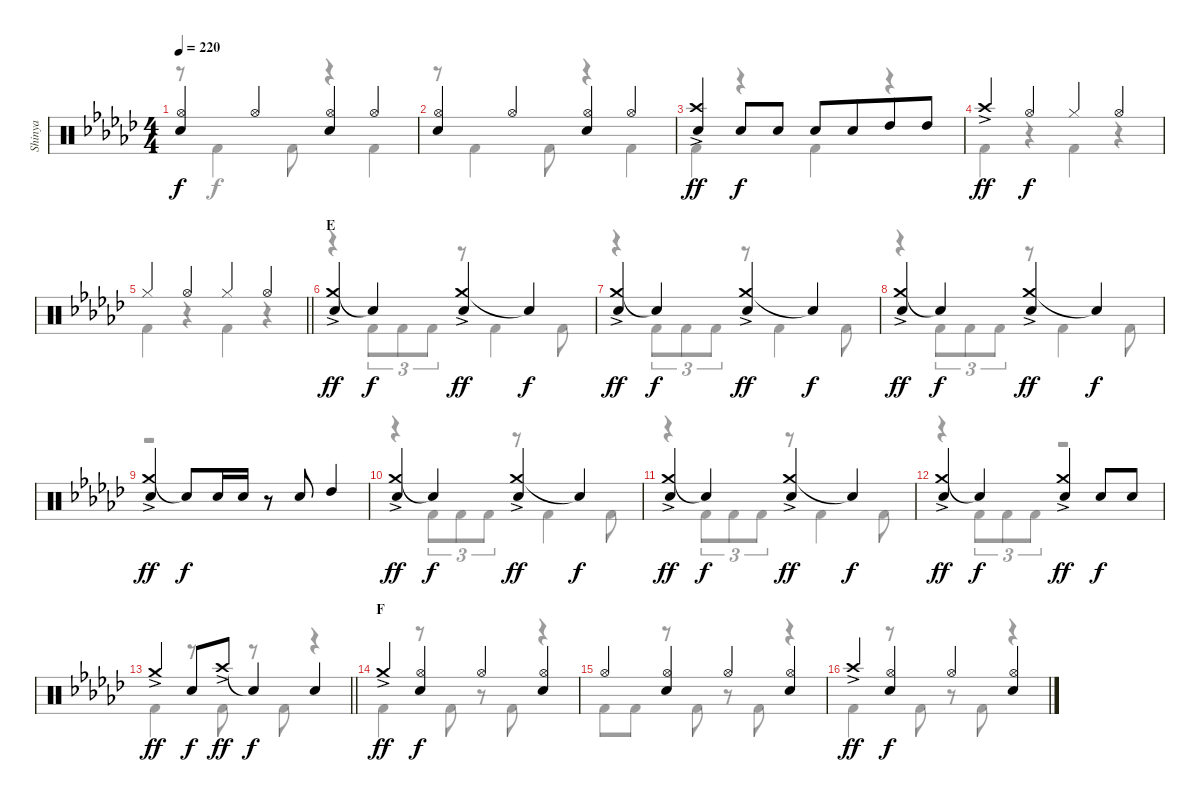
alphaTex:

\track ("Shinya" "Shinya") {instrument percussion}
\staff {score}
\articulation defaults
\voice
\ts (4 4)
\tempo 220
\clef neutral
\ks ebminor
("Hi-Hat (open)" "Snare (hit) 2").4{dy f} "Hi-Hat (open)".4 ("Hi-Hat (open)" "Snare (hit) 2").4 "Hi-Hat (open)".4 |
("Hi-Hat (open)" "Snare (hit) 2").4 "Hi-Hat (open)".4 ("Hi-Hat (open)" "Snare (hit) 2").4 "Hi-Hat (open)".4 |
("Crash high (hit)"{ac} "Snare (hit) 2").4{dy ff} "Snare (hit) 2".8{dy f} "Snare (hit) 2".8 "Snare (hit) 2".8 "Snare (hit) 2".8{beam merge} "High Tom (hit)".8 "High Tom (hit)".8 |
"Crash high (hit)"{ac}.4{dy ff} "Hi-Hat (open)".4{dy f} "Hi-Hat (closed)".4 "Hi-Hat (open)".4 |
\barLineRight lightlight "Hi-Hat (closed)".4 "Hi-Hat (open)".4 "Hi-Hat (closed)".4 "Hi-Hat (open)".4
|
\section ("" "E")
("Crash medium (hit)"{ac} "Snare (hit) 2").4{dy ff} "Snare (hit)"{t}.4{dy f} ("Crash medium (hit)"{ac} "Snare (hit) 2").4{dy ff} "Snare (hit)"{t}.4{dy f} |
("Crash medium (hit)"{ac} "Snare (hit) 2").4{dy ff} "Snare (hit)"{t}.4{dy f} ("Crash medium (hit)"{ac} "Snare (hit) 2").4{dy ff} "Snare (hit)"{t}.4{dy f} |
("Crash medium (hit)"{ac} "Snare (hit) 2").4{dy ff} "Snare (hit)"{t}.4{dy f} ("Crash medium (hit)"{ac} "Snare (hit) 2").4{dy ff} "Snare (hit)"{t}.4{dy f} |
("Crash medium (hit)"{ac} "Snare (hit) 2").4{dy ff} "Snare (hit)"{t}.8{dy f} "Snare (hit) 2".16 "Snare (hit) 2".16 r.8 "Snare (hit) 2".8 "High Tom (hit)".4 |
("Crash medium (hit)"{ac} "Snare (hit) 2").4{dy ff} "Snare (hit)"{t}.4{dy f} ("Crash medium (hit)"{ac} "Snare (hit) 2").4{dy ff} "Snare (hit)"{t}.4{dy f} |
("Crash medium (hit)"{ac} "Snare (hit) 2").4{dy ff} "Snare (hit)"{t}.4{dy f} ("Crash medium (hit)"{ac} "Snare (hit) 2").4{dy ff} "Snare (hit)"{t}.4{dy f} |
("Crash medium (hit)"{ac} "Snare (hit) 2").4{dy ff} "Snare (hit)"{t}.4{dy f} ("Crash medium (hit)"{ac} "Snare (hit) 2").4{dy ff} "Snare (hit) 2".8{dy f} "Snare (hit) 2".8 |
\barLineRight lightlight "Crash medium (hit)"{ac}.4{dy ff} "Snare (hit) 2".8{dy f} "Crash high (hit)"{ac}.8{dy ff} "Snare (hit)"{t}.4{dy f} "Snare (hit) 2".4
|
\section ("" "F")
"Crash medium (hit)"{ac}.4{dy ff} ("Hi-Hat (open)" "Snare (hit) 2").4{dy f} "Hi-Hat (open)".4 ("Hi-Hat (open)" "Snare (hit) 2").4 |
"Hi-Hat (open)".4 ("Hi-Hat (open)" "Snare (hit) 2").4 "Hi-Hat (open)".4 ("Hi-Hat (open)" "Snare (hit) 2").4 |
"Crash high (hit)"{ac}.4{dy ff} ("Hi-Hat (open)" "Snare (hit) 2").4{dy f} "Hi-Hat (open)".4 ("Hi-Hat (open)" "Snare (hit) 2").4
\voice
\clef neutral
\ottava regular
\simile none
\ks ebminor
r.8{dy f} "Kick (hit) 2".4 "Kick (hit) 2".8 r.4 "Kick (hit) 2".4 |
r.8 "Kick (hit) 2".4 "Kick (hit) 2".8 r.4 "Kick (hit) 2".4 |
"Kick (hit) 2".4 r.4 "Kick (hit) 2".4 r.4 |
"Kick (hit) 2".4 r.4 "Kick (hit) 2".4 r.4 |
\barLineRight lightlight "Kick (hit) 2".4
r.4 "Kick (hit) 2".4 r.4 |
r.4 "Kick (hit) 2".8{tu (3 2)} "Kick (hit) 2".8{tu (3 2)} "Kick (hit) 2".8{tu (3 2)} r.8 "Kick (hit) 2".4 "Kick (hit) 2".8 |
r.4 "Kick (hit) 2".8{tu (3 2)} "Kick (hit) 2".8{tu (3 2)} "Kick (hit) 2".8{tu (3 2)} r.8 "Kick (hit) 2".4 "Kick (hit) 2".8 |
r.4 "Kick (hit) 2".8{tu (3 2)} "Kick (hit) 2".8{tu (3 2)} "Kick (hit) 2".8{tu (3 2)} r.8 "Kick (hit) 2".4 "Kick (hit) 2".8 |
r.1 |
r.4 "Kick (hit) 2".8{tu (3 2)} "Kick (hit) 2".8{tu (3 2)} "Kick (hit) 2".8{tu (3 2)} r.8 "Kick (hit) 2".4 "Kick (hit) 2".8 |
r.4 "Kick (hit) 2".8{tu (3 2)} "Kick (hit) 2".8{tu (3 2)} "Kick (hit) 2".8{tu (3 2)} r.8 "Kick (hit) 2".4 "Kick (hit) 2".8 |
r.4 "Kick (hit) 2".8{tu (3 2)} "Kick (hit) 2".8{tu (3 2)} "Kick (hit) 2".8{tu (3 2)} r.2 |
\barLineRight lightlight "Kick (hit) 2".4
r.8 "Kick (hit) 2".8 r.8 "Kick (hit) 2".8 r.4 |
"Kick (hit) 2".4 r.8 "Kick (hit) 2".8 r.8 "Kick (hit) 2".8 r.4 |
"Kick (hit) 2".8 "Kick (hit) 2".8 r.8 "Kick (hit) 2".8 r.8 "Kick (hit) 2".8 r.4 |
"Kick (hit) 2".4 r.8 "Kick (hit) 2".8 r.8 "Kick (hit) 2".8 r.4
